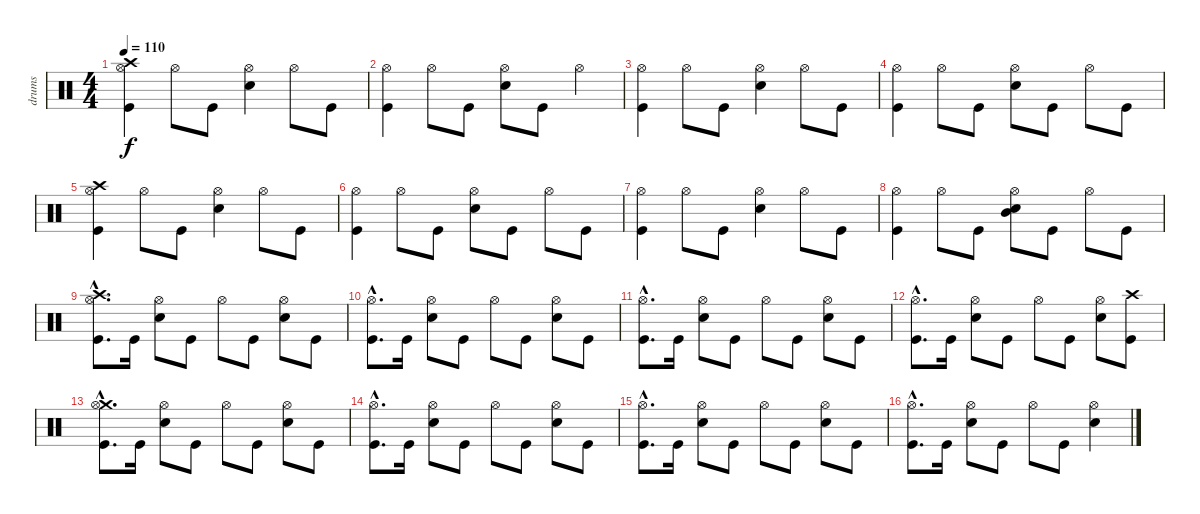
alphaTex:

\track ("drums" "drums") {instrument percussion}
\staff {score}
\articulation defaults
\ts (4 4)
\tempo 110
\clef neutral
\ks c
("Crash high (hit)" "Hi-Hat (open)" "Kick (hit)").4{dy f} "Hi-Hat (open)".8 "Kick (hit)".8 ("Hi-Hat (open)" "Snare (hit) 2").4 "Hi-Hat (open)".8 "Kick (hit)".8 |
("Hi-Hat (open)" "Kick (hit)").4 "Hi-Hat (open)".8 "Kick (hit)".8 ("Hi-Hat (open)" "Snare (hit) 2").8 "Kick (hit)".8 "Hi-Hat (open)".4 |
("Hi-Hat (open)" "Kick (hit)").4 "Hi-Hat (open)".8 "Kick (hit)".8 ("Hi-Hat (open)" "Snare (hit) 2").4 "Hi-Hat (open)".8 "Kick (hit)".8 |
("Hi-Hat (open)" "Kick (hit)").4 "Hi-Hat (open)".8 "Kick (hit)".8 ("Hi-Hat (open)" "Snare (hit) 2").8 "Kick (hit)".8 "Hi-Hat (open)".8 "Kick (hit)".8 |
("Crash high (hit)" "Hi-Hat (open)" "Kick (hit)").4 "Hi-Hat (open)".8 "Kick (hit)".8 ("Hi-Hat (open)" "Snare (hit) 2").4 "Hi-Hat (open)".8 "Kick (hit)".8 |
("Hi-Hat (open)" "Kick (hit)").4 "Hi-Hat (open)".8 "Kick (hit)".8 ("Hi-Hat (open)" "Snare (hit) 2").8 "Kick (hit)".8 "Hi-Hat (open)".8 "Kick (hit)".8 |
("Hi-Hat (open)" "Kick (hit)").4 "Hi-Hat (open)".8 "Kick (hit)".8 ("Hi-Hat (open)" "Snare (hit) 2").4 "Hi-Hat (open)".8 "Kick (hit)".8 |
("Hi-Hat (open)" "Kick (hit)").4 "Hi-Hat (open)".8 "Kick (hit)".8 ("Mid Tom (hit)" "Hi-Hat (open)" "Snare (hit) 2").8 "Kick (hit)".8 "Hi-Hat (open)".8 "Kick (hit)".8 |
("Crash high (hit)"{hac} "Hi-Hat (open)"{hac} "Kick (hit)"{hac}).8{d} "Kick (hit)".16 ("Hi-Hat (open)" "Snare (hit) 2").8 "Kick (hit)".8 "Hi-Hat (open)".8 "Kick (hit)".8 ("Hi-Hat (open)" "Snare (hit) 2").8 "Kick (hit)".8 |
("Hi-Hat (open)"{hac} "Kick (hit)"{hac}).8{d} "Kick (hit)".16 ("Hi-Hat (open)" "Snare (hit) 2").8 "Kick (hit)".8 "Hi-Hat (open)".8 "Kick (hit)".8 ("Hi-Hat (open)" "Snare (hit) 2").8 "Kick (hit)".8 |
("Hi-Hat (open)"{hac} "Kick (hit)"{hac}).8{d} "Kick (hit)".16 ("Hi-Hat (open)" "Snare (hit) 2").8 "Kick (hit)".8 "Hi-Hat (open)".8 "Kick (hit)".8 ("Hi-Hat (open)" "Snare (hit) 2").8 "Kick (hit)".8 |
("Hi-Hat (open)"{hac} "Kick (hit)"{hac}).8{d} "Kick (hit)".16 ("Hi-Hat (open)" "Snare (hit) 2").8 "Kick (hit)".8 "Hi-Hat (open)".8 "Kick (hit)".8 ("Hi-Hat (open)" "Snare (hit) 2").8 ("Crash high (hit)" "Kick (hit)").8 |
("Crash medium (hit)"{hac} "Hi-Hat (open)"{hac} "Kick (hit)"{hac}).8{d} "Kick (hit)".16 ("Hi-Hat (open)" "Snare (hit) 2").8 "Kick (hit)".8 "Hi-Hat (open)".8 "Kick (hit)".8 ("Hi-Hat (open)" "Snare (hit) 2").8 "Kick (hit)".8 |
("Hi-Hat (open)"{hac} "Kick (hit)"{hac}).8{d} "Kick (hit)".16 ("Hi-Hat (open)" "Snare (hit) 2").8 "Kick (hit)".8 "Hi-Hat (open)".8 "Kick (hit)".8 ("Hi-Hat (open)" "Snare (hit) 2").8 "Kick (hit)".8 |
("Hi-Hat (open)"{hac} "Kick (hit)"{hac}).8{d} "Kick (hit)".16 ("Hi-Hat (open)" "Snare (hit) 2").8 "Kick (hit)".8 "Hi-Hat (open)".8 "Kick (hit)".8 ("Hi-Hat (open)" "Snare (hit) 2").8 "Kick (hit)".8 |
("Hi-Hat (open)"{hac} "Kick (hit)"{hac}).8{d} "Kick (hit)".16 ("Hi-Hat (open)" "Snare (hit) 2").8 "Kick (hit)".8 "Hi-Hat (open)".8 "Kick (hit)".8 ("Hi-Hat (open)" "Snare (hit) 2").4
